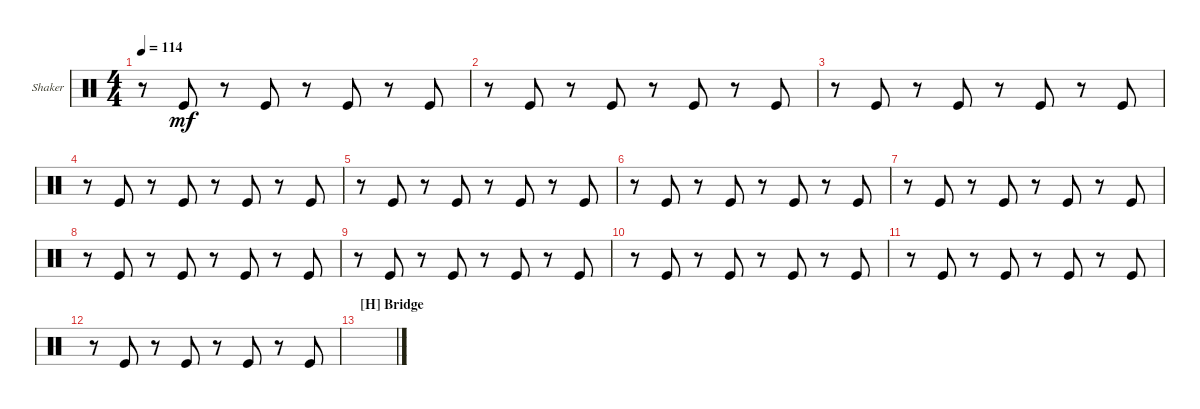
\defaultSystemsLayout 4
\bracketExtendMode groupsimilarinstruments
\firstSystemTrackNameOrientation horizontal
\otherSystemsTrackNameOrientation horizontal
\track ("Shaker" "Shaker") {instrument percussion}
\staff {score}
\articulation defaults
\ts (4 4)
\tempo 114
\clef neutral
\ks c
r.8{dy mf} "Kick (hit)".8 r.8 "Kick (hit)".8 r.8 "Kick (hit)".8 r.8 "Kick (hit)".8 |
r.8 "Kick (hit)".8 r.8 "Kick (hit)".8 r.8 "Kick (hit)".8 r.8 "Kick (hit)".8 |
r.8 "Kick (hit)".8 r.8 "Kick (hit)".8 r.8 "Kick (hit)".8 r.8 "Kick (hit)".8 |
r.8 "Kick (hit)".8 r.8 "Kick (hit)".8 r.8 "Kick (hit)".8 r.8 "Kick (hit)".8 |
r.8 "Kick (hit)".8 r.8 "Kick (hit)".8 r.8 "Kick (hit)".8 r.8 "Kick (hit)".8 |
r.8 "Kick (hit)".8 r.8 "Kick (hit)".8 r.8 "Kick (hit)".8 r.8 "Kick (hit)".8 |
r.8 "Kick (hit)".8 r.8 "Kick (hit)".8 r.8 "Kick (hit)".8 r.8 "Kick (hit)".8 |
r.8 "Kick (hit)".8 r.8 "Kick (hit)".8 r.8 "Kick (hit)".8 r.8 "Kick (hit)".8 |
r.8 "Kick (hit)".8 r.8 "Kick (hit)".8 r.8 "Kick (hit)".8 r.8 "Kick (hit)".8 |
r.8 "Kick (hit)".8 r.8 "Kick (hit)".8 r.8 "Kick (hit)".8 r.8 "Kick (hit)".8 |
r.8 "Kick (hit)".8 r.8 "Kick (hit)".8 r.8 "Kick (hit)".8 r.8 "Kick (hit)".8 |
r.8 "Kick (hit)".8 r.8 "Kick (hit)".8 r.8 "Kick (hit)".8 r.8 "Kick (hit)".8 |
\section ("H" "Bridge")
